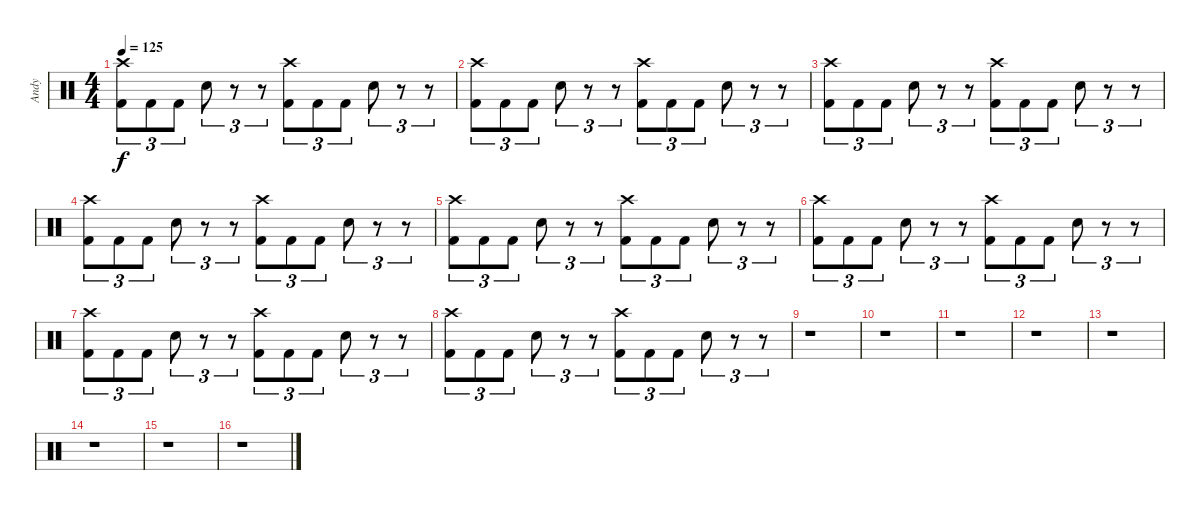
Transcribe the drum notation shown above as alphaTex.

\track ("Andy" "Andy") {instrument percussion}
\staff {score}
\articulation defaults
\ts (4 4)
\tempo 125
\clef neutral
\ks c
("Crash high (hit)" "Kick (hit) 2").8{tu (3 2) dy f} "Kick (hit) 2".8{tu (3 2)} "Kick (hit) 2".8{tu (3 2)} "Snare (hit) 2".8{tu (3 2)} r.8{tu (3 2)} r.8{tu (3 2)} ("Crash high (hit)" "Kick (hit) 2").8{tu (3 2)} "Kick (hit) 2".8{tu (3 2)} "Kick (hit) 2".8{tu (3 2)} "Snare (hit) 2".8{tu (3 2)} r.8{tu (3 2)} r.8{tu (3 2)} |
("Crash high (hit)" "Kick (hit) 2").8{tu (3 2)} "Kick (hit) 2".8{tu (3 2)} "Kick (hit) 2".8{tu (3 2)} "Snare (hit) 2".8{tu (3 2)} r.8{tu (3 2)} r.8{tu (3 2)} ("Crash high (hit)" "Kick (hit) 2").8{tu (3 2)} "Kick (hit) 2".8{tu (3 2)} "Kick (hit) 2".8{tu (3 2)} "Snare (hit) 2".8{tu (3 2)} r.8{tu (3 2)} r.8{tu (3 2)} |
("Crash high (hit)" "Kick (hit) 2").8{tu (3 2)} "Kick (hit) 2".8{tu (3 2)} "Kick (hit) 2".8{tu (3 2)} "Snare (hit) 2".8{tu (3 2)} r.8{tu (3 2)} r.8{tu (3 2)} ("Crash high (hit)" "Kick (hit) 2").8{tu (3 2)} "Kick (hit) 2".8{tu (3 2)} "Kick (hit) 2".8{tu (3 2)} "Snare (hit) 2".8{tu (3 2)} r.8{tu (3 2)} r.8{tu (3 2)} |
("Crash high (hit)" "Kick (hit) 2").8{tu (3 2)} "Kick (hit) 2".8{tu (3 2)} "Kick (hit) 2".8{tu (3 2)} "Snare (hit) 2".8{tu (3 2)} r.8{tu (3 2)} r.8{tu (3 2)} ("Crash high (hit)" "Kick (hit) 2").8{tu (3 2)} "Kick (hit) 2".8{tu (3 2)} "Kick (hit) 2".8{tu (3 2)} "Snare (hit) 2".8{tu (3 2)} r.8{tu (3 2)} r.8{tu (3 2)} |
("Crash high (hit)" "Kick (hit) 2").8{tu (3 2)} "Kick (hit) 2".8{tu (3 2)} "Kick (hit) 2".8{tu (3 2)} "Snare (hit) 2".8{tu (3 2)} r.8{tu (3 2)} r.8{tu (3 2)} ("Crash high (hit)" "Kick (hit) 2").8{tu (3 2)} "Kick (hit) 2".8{tu (3 2)} "Kick (hit) 2".8{tu (3 2)} "Snare (hit) 2".8{tu (3 2)} r.8{tu (3 2)} r.8{tu (3 2)} |
("Crash high (hit)" "Kick (hit) 2").8{tu (3 2)} "Kick (hit) 2".8{tu (3 2)} "Kick (hit) 2".8{tu (3 2)} "Snare (hit) 2".8{tu (3 2)} r.8{tu (3 2)} r.8{tu (3 2)} ("Crash high (hit)" "Kick (hit) 2").8{tu (3 2)} "Kick (hit) 2".8{tu (3 2)} "Kick (hit) 2".8{tu (3 2)} "Snare (hit) 2".8{tu (3 2)} r.8{tu (3 2)} r.8{tu (3 2)} |
("Crash high (hit)" "Kick (hit) 2").8{tu (3 2)} "Kick (hit) 2".8{tu (3 2)} "Kick (hit) 2".8{tu (3 2)} "Snare (hit) 2".8{tu (3 2)} r.8{tu (3 2)} r.8{tu (3 2)} ("Crash high (hit)" "Kick (hit) 2").8{tu (3 2)} "Kick (hit) 2".8{tu (3 2)} "Kick (hit) 2".8{tu (3 2)} "Snare (hit) 2".8{tu (3 2)} r.8{tu (3 2)} r.8{tu (3 2)} |
("Crash high (hit)" "Kick (hit) 2").8{tu (3 2)} "Kick (hit) 2".8{tu (3 2)} "Kick (hit) 2".8{tu (3 2)} "Snare (hit) 2".8{tu (3 2)} r.8{tu (3 2)} r.8{tu (3 2)} ("Crash high (hit)" "Kick (hit) 2").8{tu (3 2)} "Kick (hit) 2".8{tu (3 2)} "Kick (hit) 2".8{tu (3 2)} "Snare (hit) 2".8{tu (3 2)} r.8{tu (3 2)} r.8{tu (3 2)} |
r.1 |
r.1 |
r.1 |
r.1 |
r.1 |
r.1 |
r.1 |
r.1
